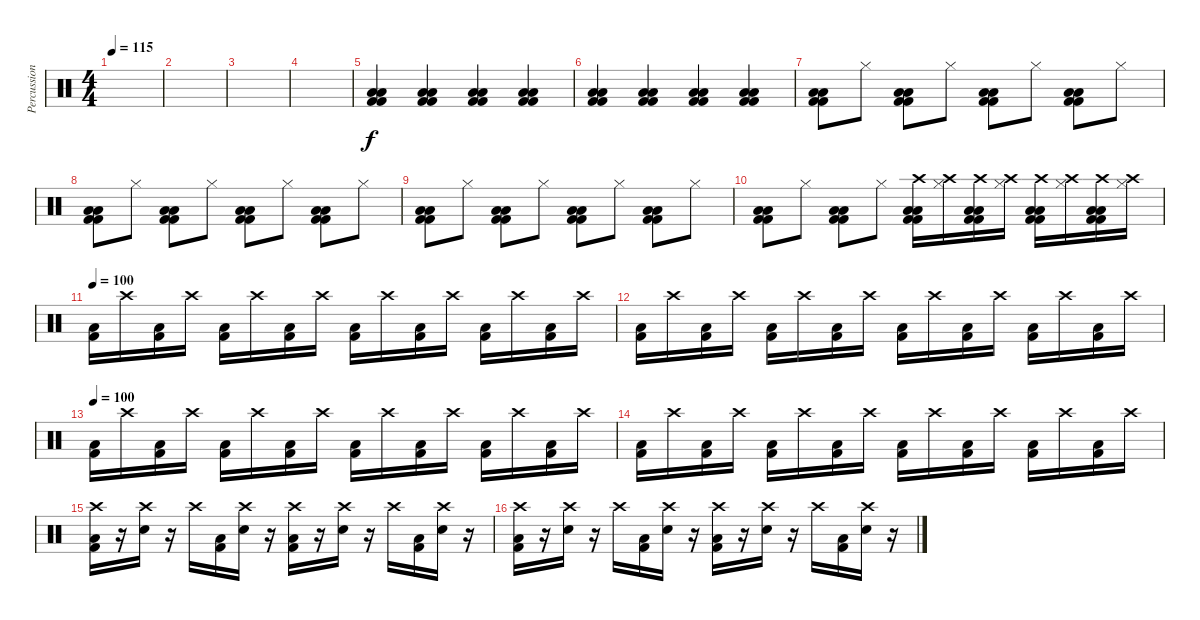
\track ("Percussions" "Percussion") {instrument percussion}
\staff {score}
\articulation defaults
\ts (4 4)
\tempo 115
\clef neutral
\ks c
|
|
|
|
("Kick (hit) 2" "Kick (hit) 2" "Low Floor Tom (hit)" "Low Floor Tom (hit)").4 ("Kick (hit) 2" "Kick (hit) 2" "Low Floor Tom (hit)" "Low Floor Tom (hit)").4 ("Kick (hit) 2" "Kick (hit) 2" "Low Floor Tom (hit)" "Low Floor Tom (hit)").4 ("Kick (hit) 2" "Kick (hit) 2" "Low Floor Tom (hit)" "Low Floor Tom (hit)").4 |
("Kick (hit) 2" "Kick (hit) 2" "Low Floor Tom (hit)" "Low Floor Tom (hit)").4 ("Kick (hit) 2" "Kick (hit) 2" "Low Floor Tom (hit)" "Low Floor Tom (hit)").4 ("Kick (hit) 2" "Kick (hit) 2" "Low Floor Tom (hit)" "Low Floor Tom (hit)").4 ("Kick (hit) 2" "Kick (hit) 2" "Low Floor Tom (hit)" "Low Floor Tom (hit)").4 |
("Kick (hit) 2" "Kick (hit) 2" "Low Floor Tom (hit)" "Low Floor Tom (hit)").8 "Hi-Hat (closed)".8 ("Kick (hit) 2" "Kick (hit) 2" "Low Floor Tom (hit)" "Low Floor Tom (hit)").8 "Hi-Hat (closed)".8 ("Kick (hit) 2" "Kick (hit) 2" "Low Floor Tom (hit)" "Low Floor Tom (hit)").8 "Hi-Hat (closed)".8 ("Kick (hit) 2" "Kick (hit) 2" "Low Floor Tom (hit)" "Low Floor Tom (hit)").8 "Hi-Hat (closed)".8 |
("Kick (hit) 2" "Kick (hit) 2" "Low Floor Tom (hit)" "Low Floor Tom (hit)").8 "Hi-Hat (closed)".8 ("Kick (hit) 2" "Kick (hit) 2" "Low Floor Tom (hit)" "Low Floor Tom (hit)").8 "Hi-Hat (closed)".8 ("Kick (hit) 2" "Kick (hit) 2" "Low Floor Tom (hit)" "Low Floor Tom (hit)").8 "Hi-Hat (closed)".8 ("Kick (hit) 2" "Kick (hit) 2" "Low Floor Tom (hit)" "Low Floor Tom (hit)").8 "Hi-Hat (closed)".8 |
("Kick (hit) 2" "Kick (hit) 2" "Low Floor Tom (hit)" "Low Floor Tom (hit)").8 "Hi-Hat (closed)".8 ("Kick (hit) 2" "Kick (hit) 2" "Low Floor Tom (hit)" "Low Floor Tom (hit)").8 "Hi-Hat (closed)".8 ("Kick (hit) 2" "Kick (hit) 2" "Low Floor Tom (hit)" "Low Floor Tom (hit)").8 "Hi-Hat (closed)".8 ("Kick (hit) 2" "Kick (hit) 2" "Low Floor Tom (hit)" "Low Floor Tom (hit)").8 "Hi-Hat (closed)".8 |
("Kick (hit) 2" "Kick (hit) 2" "Low Floor Tom (hit)" "Low Floor Tom (hit)").8 "Hi-Hat (closed)".8 ("Kick (hit) 2" "Kick (hit) 2" "Low Floor Tom (hit)" "Low Floor Tom (hit)").8 "Hi-Hat (closed)".8 ("Crash high (hit)" "Kick (hit) 2" "Kick (hit) 2" "Low Floor Tom (hit)" "Low Floor Tom (hit)").16 ("Crash high (hit)" "Hi-Hat (closed)").16 ("Crash high (hit)" "Kick (hit) 2" "Kick (hit) 2" "Low Floor Tom (hit)" "Low Floor Tom (hit)").16 ("Crash high (hit)" "Hi-Hat (closed)").16 ("Crash high (hit)" "Kick (hit) 2" "Kick (hit) 2" "Low Floor Tom (hit)" "Low Floor Tom (hit)").16 ("Crash high (hit)" "Hi-Hat (closed)").16 ("Crash high (hit)" "Kick (hit) 2" "Kick (hit) 2" "Low Floor Tom (hit)" "Low Floor Tom (hit)").16 ("Crash high (hit)" "Hi-Hat (closed)").16 |
\tempo 100
("Kick (hit) 2" "Low Floor Tom (hit)").16 "Crash high (hit)".16 ("Kick (hit) 2" "Low Floor Tom (hit)").16 "Crash high (hit)".16 ("Kick (hit) 2" "Low Floor Tom (hit)").16 "Crash high (hit)".16 ("Kick (hit) 2" "Low Floor Tom (hit)").16 "Crash high (hit)".16 ("Kick (hit) 2" "Low Floor Tom (hit)").16 "Crash high (hit)".16 ("Kick (hit) 2" "Low Floor Tom (hit)").16 "Crash high (hit)".16 ("Kick (hit) 2" "Low Floor Tom (hit)").16 "Crash high (hit)".16 ("Kick (hit) 2" "Low Floor Tom (hit)").16 "Crash high (hit)".16 |
("Kick (hit) 2" "Low Floor Tom (hit)").16 "Crash high (hit)".16 ("Kick (hit) 2" "Low Floor Tom (hit)").16 "Crash high (hit)".16 ("Kick (hit) 2" "Low Floor Tom (hit)").16 "Crash high (hit)".16 ("Kick (hit) 2" "Low Floor Tom (hit)").16 "Crash high (hit)".16 ("Kick (hit) 2" "Low Floor Tom (hit)").16 "Crash high (hit)".16 ("Kick (hit) 2" "Low Floor Tom (hit)").16 "Crash high (hit)".16 ("Kick (hit) 2" "Low Floor Tom (hit)").16 "Crash high (hit)".16 ("Kick (hit) 2" "Low Floor Tom (hit)").16 "Crash high (hit)".16 |
\tempo 100
("Kick (hit) 2" "Low Floor Tom (hit)").16 "Crash high (hit)".16 ("Kick (hit) 2" "Low Floor Tom (hit)").16 "Crash high (hit)".16 ("Kick (hit) 2" "Low Floor Tom (hit)").16 "Crash high (hit)".16 ("Kick (hit) 2" "Low Floor Tom (hit)").16 "Crash high (hit)".16 ("Kick (hit) 2" "Low Floor Tom (hit)").16 "Crash high (hit)".16 ("Kick (hit) 2" "Low Floor Tom (hit)").16 "Crash high (hit)".16 ("Kick (hit) 2" "Low Floor Tom (hit)").16 "Crash high (hit)".16 ("Kick (hit) 2" "Low Floor Tom (hit)").16 "Crash high (hit)".16 |
("Kick (hit) 2" "Low Floor Tom (hit)").16 "Crash high (hit)".16 ("Kick (hit) 2" "Low Floor Tom (hit)").16 "Crash high (hit)".16 ("Kick (hit) 2" "Low Floor Tom (hit)").16 "Crash high (hit)".16 ("Kick (hit) 2" "Low Floor Tom (hit)").16 "Crash high (hit)".16 ("Kick (hit) 2" "Low Floor Tom (hit)").16 "Crash high (hit)".16 ("Kick (hit) 2" "Low Floor Tom (hit)").16 "Crash high (hit)".16 ("Kick (hit) 2" "Low Floor Tom (hit)").16 "Crash high (hit)".16 ("Kick (hit) 2" "Low Floor Tom (hit)").16 "Crash high (hit)".16 |
("Crash high (hit)" "Kick (hit) 2" "Low Floor Tom (hit)").16 r.16 ("Crash high (hit)" "Electric Snare (hit)").16 r.16 "Crash high (hit)".16 ("Kick (hit) 2" "Low Floor Tom (hit)").16 ("Crash high (hit)" "Electric Snare (hit)").16 r.16 ("Crash high (hit)" "Kick (hit) 2" "Low Floor Tom (hit)").16 r.16 ("Crash high (hit)" "Electric Snare (hit)").16 r.16 "Crash high (hit)".16 ("Kick (hit) 2" "Low Floor Tom (hit)").16 ("Crash high (hit)" "Electric Snare (hit)").16 r.16 |
("Crash high (hit)" "Kick (hit) 2" "Low Floor Tom (hit)").16 r.16 ("Crash high (hit)" "Electric Snare (hit)").16 r.16 "Crash high (hit)".16 ("Kick (hit) 2" "Low Floor Tom (hit)").16 ("Crash high (hit)" "Electric Snare (hit)").16 r.16 ("Crash high (hit)" "Kick (hit) 2" "Low Floor Tom (hit)").16 r.16 ("Crash high (hit)" "Electric Snare (hit)").16 r.16 "Crash high (hit)".16 ("Kick (hit) 2" "Low Floor Tom (hit)").16 ("Crash high (hit)" "Electric Snare (hit)").16 r.16
